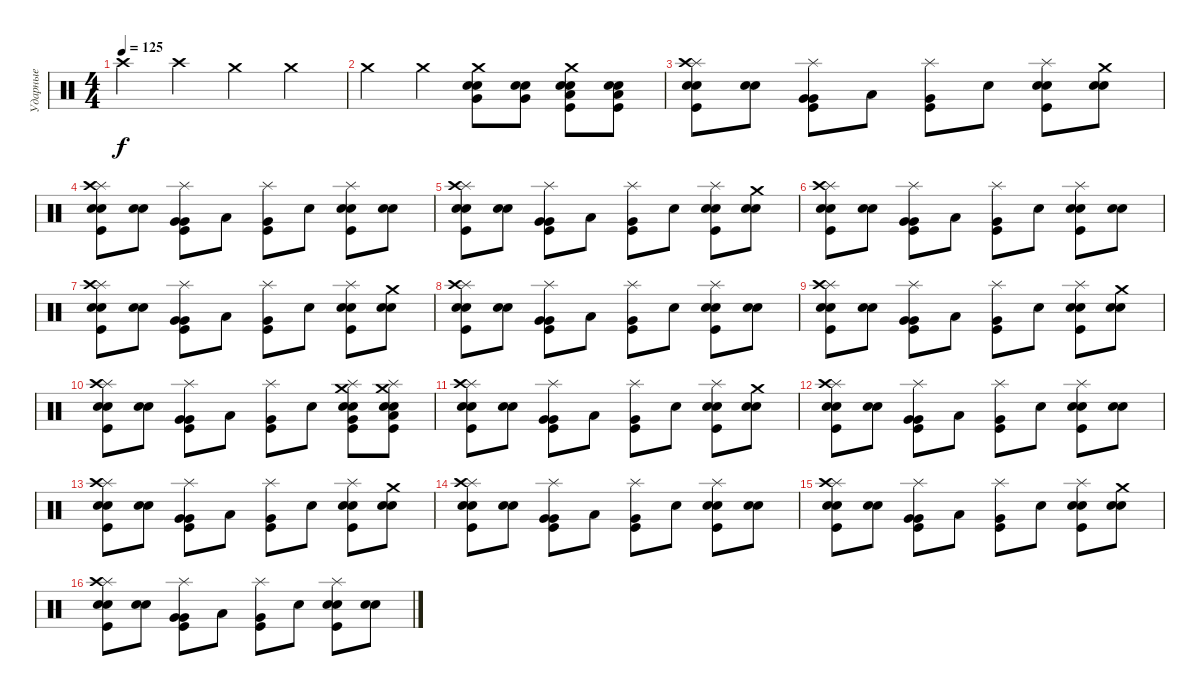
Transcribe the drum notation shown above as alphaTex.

\track ("Ударные" "Ударные") {instrument percussion}
\staff {score}
\articulation defaults
\ts (4 4)
\tempo 125
\clef neutral
\ks c "Crash high (hit)".4{dy f} "Crash high (hit)".4 "Crash medium (hit)".4 "Crash medium (hit)".4
|
"Crash medium (hit)".4 "Crash medium (hit)".4 ("Crash medium (hit)" "Snare (hit) 2" "Snare (hit) 2" "Very Low Tom (hit)").8 ("Electric Snare (hit)" "Electric Snare (hit)" "Very Low Tom (hit)").8 ("Crash medium (hit)" "Snare (hit) 2" "Snare (hit) 2" "Low Floor Tom (hit)" "Kick (hit)").8 ("Electric Snare (hit)" "Electric Snare (hit)" "Low Floor Tom (hit)" "Kick (hit)").8 |
("Splash (hit)" "Crash high (hit)" "Snare (hit) 2" "Snare (hit) 2" "Kick (hit)").8 ("Electric Snare (hit)" "Electric Snare (hit)").8 ("Splash (hit)" "Very Low Tom (hit)" "Very Low Tom (hit)" "Kick (hit)").8 "Low Floor Tom (hit)".8 ("Splash (hit)" "Very Low Tom (hit)" "Kick (hit)").8 "Snare (hit) 2".8 ("Splash (hit)" "Electric Snare (hit)" "Electric Snare (hit)" "Kick (hit)").8 ("Crash medium (hit)" "Snare (hit) 2" "Snare (hit) 2").8 |
("Splash (hit)" "Crash high (hit)" "Snare (hit) 2" "Snare (hit) 2" "Kick (hit)").8 ("Electric Snare (hit)" "Electric Snare (hit)").8 ("Splash (hit)" "Very Low Tom (hit)" "Very Low Tom (hit)" "Kick (hit)").8 "Low Floor Tom (hit)".8 ("Splash (hit)" "Very Low Tom (hit)" "Kick (hit)").8 "Snare (hit) 2".8 ("Splash (hit)" "Electric Snare (hit)" "Electric Snare (hit)" "Kick (hit)").8 ("Snare (hit) 2" "Snare (hit) 2").8 |
("Splash (hit)" "Crash high (hit)" "Snare (hit) 2" "Snare (hit) 2" "Kick (hit)").8 ("Electric Snare (hit)" "Electric Snare (hit)").8 ("Splash (hit)" "Very Low Tom (hit)" "Very Low Tom (hit)" "Kick (hit)").8 "Low Floor Tom (hit)".8 ("Splash (hit)" "Very Low Tom (hit)" "Kick (hit)").8 "Snare (hit) 2".8 ("Splash (hit)" "Electric Snare (hit)" "Electric Snare (hit)" "Kick (hit)").8 ("Crash medium (hit)" "Snare (hit) 2" "Snare (hit) 2").8 |
("Splash (hit)" "Crash high (hit)" "Snare (hit) 2" "Snare (hit) 2" "Kick (hit)").8 ("Electric Snare (hit)" "Electric Snare (hit)").8 ("Splash (hit)" "Very Low Tom (hit)" "Very Low Tom (hit)" "Kick (hit)").8 "Low Floor Tom (hit)".8 ("Splash (hit)" "Very Low Tom (hit)" "Kick (hit)").8 "Snare (hit) 2".8 ("Splash (hit)" "Electric Snare (hit)" "Electric Snare (hit)" "Kick (hit)").8 ("Snare (hit) 2" "Snare (hit) 2").8 |
("Splash (hit)" "Crash high (hit)" "Snare (hit) 2" "Snare (hit) 2" "Kick (hit)").8 ("Electric Snare (hit)" "Electric Snare (hit)").8 ("Splash (hit)" "Very Low Tom (hit)" "Very Low Tom (hit)" "Kick (hit)").8 "Low Floor Tom (hit)".8 ("Splash (hit)" "Very Low Tom (hit)" "Kick (hit)").8 "Snare (hit) 2".8 ("Splash (hit)" "Electric Snare (hit)" "Electric Snare (hit)" "Kick (hit)").8 ("Crash medium (hit)" "Snare (hit) 2" "Snare (hit) 2").8 |
("Splash (hit)" "Crash high (hit)" "Snare (hit) 2" "Snare (hit) 2" "Kick (hit)").8 ("Electric Snare (hit)" "Electric Snare (hit)").8 ("Splash (hit)" "Very Low Tom (hit)" "Very Low Tom (hit)" "Kick (hit)").8 "Low Floor Tom (hit)".8 ("Splash (hit)" "Very Low Tom (hit)" "Kick (hit)").8 "Snare (hit) 2".8 ("Splash (hit)" "Electric Snare (hit)" "Electric Snare (hit)" "Kick (hit)").8 ("Snare (hit) 2" "Snare (hit) 2").8 |
("Splash (hit)" "Crash high (hit)" "Snare (hit) 2" "Snare (hit) 2" "Kick (hit)").8 ("Electric Snare (hit)" "Electric Snare (hit)").8 ("Splash (hit)" "Very Low Tom (hit)" "Very Low Tom (hit)" "Kick (hit)").8 "Low Floor Tom (hit)".8 ("Splash (hit)" "Very Low Tom (hit)" "Kick (hit)").8 "Snare (hit) 2".8 ("Splash (hit)" "Electric Snare (hit)" "Electric Snare (hit)" "Kick (hit)").8 ("Crash medium (hit)" "Snare (hit) 2" "Snare (hit) 2").8 |
("Splash (hit)" "Crash high (hit)" "Snare (hit) 2" "Snare (hit) 2" "Kick (hit)").8 ("Electric Snare (hit)" "Electric Snare (hit)").8 ("Splash (hit)" "Very Low Tom (hit)" "Very Low Tom (hit)" "Kick (hit)").8 "Low Floor Tom (hit)".8 ("Splash (hit)" "Very Low Tom (hit)" "Kick (hit)").8 "Snare (hit) 2".8 ("Splash (hit)" "Crash medium (hit)" "Electric Snare (hit)" "Electric Snare (hit)" "Very Low Tom (hit)" "Kick (hit)").8 ("Splash (hit)" "Crash medium (hit)" "Snare (hit) 2" "Snare (hit) 2" "Low Floor Tom (hit)" "Kick (hit)").8 |
("Splash (hit)" "Crash high (hit)" "Snare (hit) 2" "Snare (hit) 2" "Kick (hit)").8 ("Electric Snare (hit)" "Electric Snare (hit)").8 ("Splash (hit)" "Very Low Tom (hit)" "Very Low Tom (hit)" "Kick (hit)").8 "Low Floor Tom (hit)".8 ("Splash (hit)" "Very Low Tom (hit)" "Kick (hit)").8 "Snare (hit) 2".8 ("Splash (hit)" "Electric Snare (hit)" "Electric Snare (hit)" "Kick (hit)").8 ("Crash medium (hit)" "Snare (hit) 2" "Snare (hit) 2").8 |
("Splash (hit)" "Crash high (hit)" "Snare (hit) 2" "Snare (hit) 2" "Kick (hit)").8 ("Electric Snare (hit)" "Electric Snare (hit)").8 ("Splash (hit)" "Very Low Tom (hit)" "Very Low Tom (hit)" "Kick (hit)").8 "Low Floor Tom (hit)".8 ("Splash (hit)" "Very Low Tom (hit)" "Kick (hit)").8 "Snare (hit) 2".8 ("Splash (hit)" "Electric Snare (hit)" "Electric Snare (hit)" "Kick (hit)").8 ("Snare (hit) 2" "Snare (hit) 2").8 |
("Splash (hit)" "Crash high (hit)" "Snare (hit) 2" "Snare (hit) 2" "Kick (hit)").8 ("Electric Snare (hit)" "Electric Snare (hit)").8 ("Splash (hit)" "Very Low Tom (hit)" "Very Low Tom (hit)" "Kick (hit)").8 "Low Floor Tom (hit)".8 ("Splash (hit)" "Very Low Tom (hit)" "Kick (hit)").8 "Snare (hit) 2".8 ("Splash (hit)" "Electric Snare (hit)" "Electric Snare (hit)" "Kick (hit)").8 ("Crash medium (hit)" "Snare (hit) 2" "Snare (hit) 2").8 |
("Splash (hit)" "Crash high (hit)" "Snare (hit) 2" "Snare (hit) 2" "Kick (hit)").8 ("Electric Snare (hit)" "Electric Snare (hit)").8 ("Splash (hit)" "Very Low Tom (hit)" "Very Low Tom (hit)" "Kick (hit)").8 "Low Floor Tom (hit)".8 ("Splash (hit)" "Very Low Tom (hit)" "Kick (hit)").8 "Snare (hit) 2".8 ("Splash (hit)" "Electric Snare (hit)" "Electric Snare (hit)" "Kick (hit)").8 ("Snare (hit) 2" "Snare (hit) 2").8 |
("Splash (hit)" "Crash high (hit)" "Snare (hit) 2" "Snare (hit) 2" "Kick (hit)").8 ("Electric Snare (hit)" "Electric Snare (hit)").8 ("Splash (hit)" "Very Low Tom (hit)" "Very Low Tom (hit)" "Kick (hit)").8 "Low Floor Tom (hit)".8 ("Splash (hit)" "Very Low Tom (hit)" "Kick (hit)").8 "Snare (hit) 2".8 ("Splash (hit)" "Electric Snare (hit)" "Electric Snare (hit)" "Kick (hit)").8 ("Crash medium (hit)" "Snare (hit) 2" "Snare (hit) 2").8 |
("Splash (hit)" "Crash high (hit)" "Snare (hit) 2" "Snare (hit) 2" "Kick (hit)").8 ("Electric Snare (hit)" "Electric Snare (hit)").8 ("Splash (hit)" "Very Low Tom (hit)" "Very Low Tom (hit)" "Kick (hit)").8 "Low Floor Tom (hit)".8 ("Splash (hit)" "Very Low Tom (hit)" "Kick (hit)").8 "Snare (hit) 2".8 ("Splash (hit)" "Electric Snare (hit)" "Electric Snare (hit)" "Kick (hit)").8 ("Snare (hit) 2" "Snare (hit) 2").8
